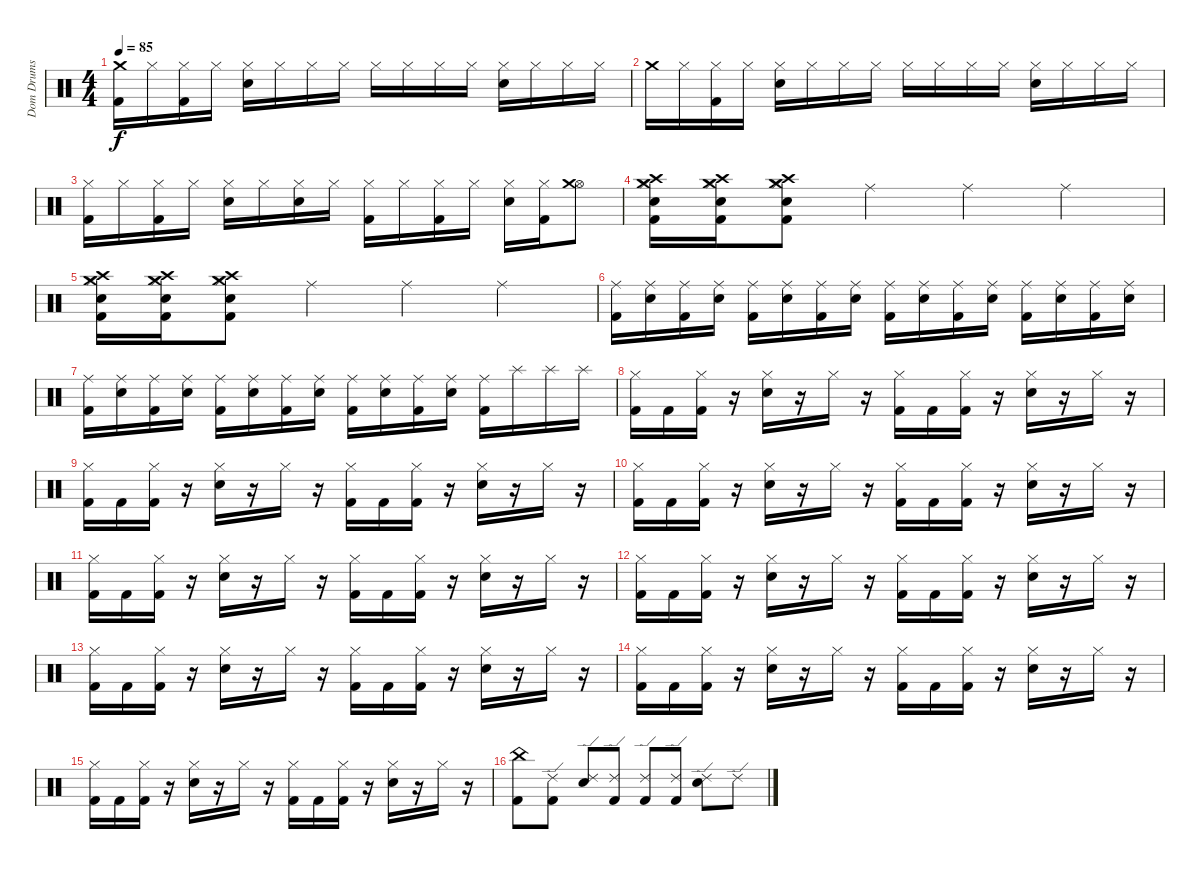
\track ("Dom Drums" "Dom Drums") {instrument percussion}
\staff {score}
\articulation defaults
\ts (4 4)
\tempo 85
\clef neutral
\ks c
("Crash medium (hit)" "Kick (hit) 2").16{dy f} "Hi-Hat (closed)".16 ("Hi-Hat (closed)" "Kick (hit) 2").16 "Hi-Hat (closed)".16 ("Hi-Hat (closed)" "Snare (hit) 2").16 "Hi-Hat (closed)".16 "Hi-Hat (closed)".16 "Hi-Hat (closed)".16 "Hi-Hat (closed)".16 "Hi-Hat (closed)".16 "Hi-Hat (closed)".16 "Hi-Hat (closed)".16 ("Hi-Hat (closed)" "Snare (hit) 2").16 "Hi-Hat (closed)".16 "Hi-Hat (closed)".16 "Hi-Hat (closed)".16 |
"Crash medium (hit)".16 "Hi-Hat (closed)".16 ("Hi-Hat (closed)" "Kick (hit) 2").16 "Hi-Hat (closed)".16 ("Hi-Hat (closed)" "Snare (hit) 2").16 "Hi-Hat (closed)".16 "Hi-Hat (closed)".16 "Hi-Hat (closed)".16 "Hi-Hat (closed)".16 "Hi-Hat (closed)".16 "Hi-Hat (closed)".16 "Hi-Hat (closed)".16 ("Hi-Hat (closed)" "Snare (hit) 2").16 "Hi-Hat (closed)".16 "Hi-Hat (closed)".16 "Hi-Hat (closed)".16 |
("Hi-Hat (closed)" "Kick (hit) 2").16 "Hi-Hat (closed)".16 ("Hi-Hat (closed)" "Kick (hit) 2").16 "Hi-Hat (closed)".16 ("Hi-Hat (closed)" "Snare (hit) 2").16 "Hi-Hat (closed)".16 ("Hi-Hat (closed)" "Snare (hit) 2").16 "Hi-Hat (closed)".16 ("Hi-Hat (closed)" "Kick (hit) 2").16 "Hi-Hat (closed)".16 ("Hi-Hat (closed)" "Kick (hit) 2").16 "Hi-Hat (closed)".16 ("Hi-Hat (closed)" "Snare (hit) 2").16 ("Hi-Hat (closed)" "Kick (hit) 2").16 ("Hi-Hat (open)" "Crash medium (hit)").8 |
("Hi-Hat (closed)" "Crash medium (hit)" "Snare (hit) 2" "Crash high (hit)" "Kick (hit) 2").16 ("Hi-Hat (closed)" "Crash medium (hit)" "Snare (hit) 2" "Crash high (hit)" "Kick (hit) 2").16 ("Hi-Hat (closed)" "Crash medium (hit)" "Snare (hit) 2" "Crash high (hit)" "Kick (hit) 2").8 "Ride (middle)".4 "Ride (middle)".4 "Ride (middle)".4 |
("Hi-Hat (closed)" "Crash medium (hit)" "Snare (hit) 2" "Crash high (hit)" "Kick (hit) 2").16 ("Hi-Hat (closed)" "Crash medium (hit)" "Snare (hit) 2" "Crash high (hit)" "Kick (hit) 2").16 ("Hi-Hat (closed)" "Crash medium (hit)" "Snare (hit) 2" "Crash high (hit)" "Kick (hit) 2").8 "Ride (middle)".4 "Ride (middle)".4 "Ride (middle)".4 |
("Ride (middle)" "Kick (hit) 2").16 ("Ride (middle)" "Snare (hit) 2").16 ("Ride (middle)" "Kick (hit) 2").16 ("Ride (middle)" "Snare (hit) 2").16 ("Ride (middle)" "Kick (hit) 2").16 ("Ride (middle)" "Snare (hit) 2").16 ("Ride (middle)" "Kick (hit) 2").16 ("Ride (middle)" "Snare (hit) 2").16 ("Ride (middle)" "Kick (hit) 2").16 ("Ride (middle)" "Snare (hit) 2").16 ("Ride (middle)" "Kick (hit) 2").16 ("Ride (middle)" "Snare (hit) 2").16 ("Ride (middle)" "Kick (hit) 2").16 ("Ride (middle)" "Snare (hit) 2").16 ("Ride (middle)" "Kick (hit) 2").16 ("Ride (middle)" "Snare (hit) 2").16 |
("Ride (middle)" "Kick (hit) 2").16 ("Ride (middle)" "Snare (hit) 2").16 ("Ride (middle)" "Kick (hit) 2").16 ("Ride (middle)" "Snare (hit) 2").16 ("Ride (middle)" "Kick (hit) 2").16 ("Ride (middle)" "Snare (hit) 2").16 ("Ride (middle)" "Kick (hit) 2").16 ("Ride (middle)" "Snare (hit) 2").16 ("Ride (middle)" "Kick (hit) 2").16 ("Ride (middle)" "Snare (hit) 2").16 ("Ride (middle)" "Kick (hit) 2").16 ("Ride (middle)" "Snare (hit) 2").16 ("Ride (middle)" "Kick (hit) 2").16 "Splash (hit)".16 "Splash (hit)".16 "Splash (hit)".16 |
("Hi-Hat (closed)" "Kick (hit) 2").16 "Kick (hit) 2".16 ("Hi-Hat (closed)" "Kick (hit) 2").16 r.16 ("Hi-Hat (closed)" "Snare (hit) 2").16 r.16 "Hi-Hat (closed)".16 r.16 ("Hi-Hat (closed)" "Kick (hit) 2").16 "Kick (hit) 2".16 ("Hi-Hat (closed)" "Kick (hit) 2").16 r.16 ("Hi-Hat (closed)" "Snare (hit) 2").16 r.16 "Hi-Hat (closed)".16 r.16 |
("Hi-Hat (closed)" "Kick (hit) 2").16 "Kick (hit) 2".16 ("Hi-Hat (closed)" "Kick (hit) 2").16 r.16 ("Hi-Hat (closed)" "Snare (hit) 2").16 r.16 "Hi-Hat (closed)".16 r.16 ("Hi-Hat (closed)" "Kick (hit) 2").16 "Kick (hit) 2".16 ("Hi-Hat (closed)" "Kick (hit) 2").16 r.16 ("Hi-Hat (closed)" "Snare (hit) 2").16 r.16 "Hi-Hat (closed)".16 r.16 |
("Hi-Hat (closed)" "Kick (hit) 2").16 "Kick (hit) 2".16 ("Hi-Hat (closed)" "Kick (hit) 2").16 r.16 ("Hi-Hat (closed)" "Snare (hit) 2").16 r.16 "Hi-Hat (closed)".16 r.16 ("Hi-Hat (closed)" "Kick (hit) 2").16 "Kick (hit) 2".16 ("Hi-Hat (closed)" "Kick (hit) 2").16 r.16 ("Hi-Hat (closed)" "Snare (hit) 2").16 r.16 "Hi-Hat (closed)".16 r.16 |
("Hi-Hat (closed)" "Kick (hit) 2").16 "Kick (hit) 2".16 ("Hi-Hat (closed)" "Kick (hit) 2").16 r.16 ("Hi-Hat (closed)" "Snare (hit) 2").16 r.16 "Hi-Hat (closed)".16 r.16 ("Hi-Hat (closed)" "Kick (hit) 2").16 "Kick (hit) 2".16 ("Hi-Hat (closed)" "Kick (hit) 2").16 r.16 ("Hi-Hat (closed)" "Snare (hit) 2").16 r.16 "Hi-Hat (closed)".16 r.16 |
("Hi-Hat (closed)" "Kick (hit) 2").16 "Kick (hit) 2".16 ("Hi-Hat (closed)" "Kick (hit) 2").16 r.16 ("Hi-Hat (closed)" "Snare (hit) 2").16 r.16 "Hi-Hat (closed)".16 r.16 ("Hi-Hat (closed)" "Kick (hit) 2").16 "Kick (hit) 2".16 ("Hi-Hat (closed)" "Kick (hit) 2").16 r.16 ("Hi-Hat (closed)" "Snare (hit) 2").16 r.16 "Hi-Hat (closed)".16 r.16 |
("Hi-Hat (closed)" "Kick (hit) 2").16 "Kick (hit) 2".16 ("Hi-Hat (closed)" "Kick (hit) 2").16 r.16 ("Hi-Hat (closed)" "Snare (hit) 2").16 r.16 "Hi-Hat (closed)".16 r.16 ("Hi-Hat (closed)" "Kick (hit) 2").16 "Kick (hit) 2".16 ("Hi-Hat (closed)" "Kick (hit) 2").16 r.16 ("Hi-Hat (closed)" "Snare (hit) 2").16 r.16 "Hi-Hat (closed)".16 r.16 |
("Hi-Hat (closed)" "Kick (hit) 2").16 "Kick (hit) 2".16 ("Hi-Hat (closed)" "Kick (hit) 2").16 r.16 ("Hi-Hat (closed)" "Snare (hit) 2").16 r.16 "Hi-Hat (closed)".16 r.16 ("Hi-Hat (closed)" "Kick (hit) 2").16 "Kick (hit) 2".16 ("Hi-Hat (closed)" "Kick (hit) 2").16 r.16 ("Hi-Hat (closed)" "Snare (hit) 2").16 r.16 "Hi-Hat (closed)".16 r.16 |
("Hi-Hat (closed)" "Kick (hit) 2").16 "Kick (hit) 2".16 ("Hi-Hat (closed)" "Kick (hit) 2").16 r.16 ("Hi-Hat (closed)" "Snare (hit) 2").16 r.16 "Hi-Hat (closed)".16 r.16 ("Hi-Hat (closed)" "Kick (hit) 2").16 "Kick (hit) 2".16 ("Hi-Hat (closed)" "Kick (hit) 2").16 r.16 ("Hi-Hat (closed)" "Snare (hit) 2").16 r.16 "Hi-Hat (closed)".16 r.16 |
("China (hit)" "Kick (hit) 2").8 ("Ride (edge) 2" "Kick (hit) 2").8 ("Ride (edge) 2" "Snare (hit) 2").8 ("Ride (edge) 2" "Kick (hit) 2").8 ("Ride (edge) 2" "Kick (hit) 2").8 ("Ride (edge) 2" "Kick (hit) 2").8 ("Ride (edge) 2" "Snare (hit) 2").8 "Ride (edge) 2".8
